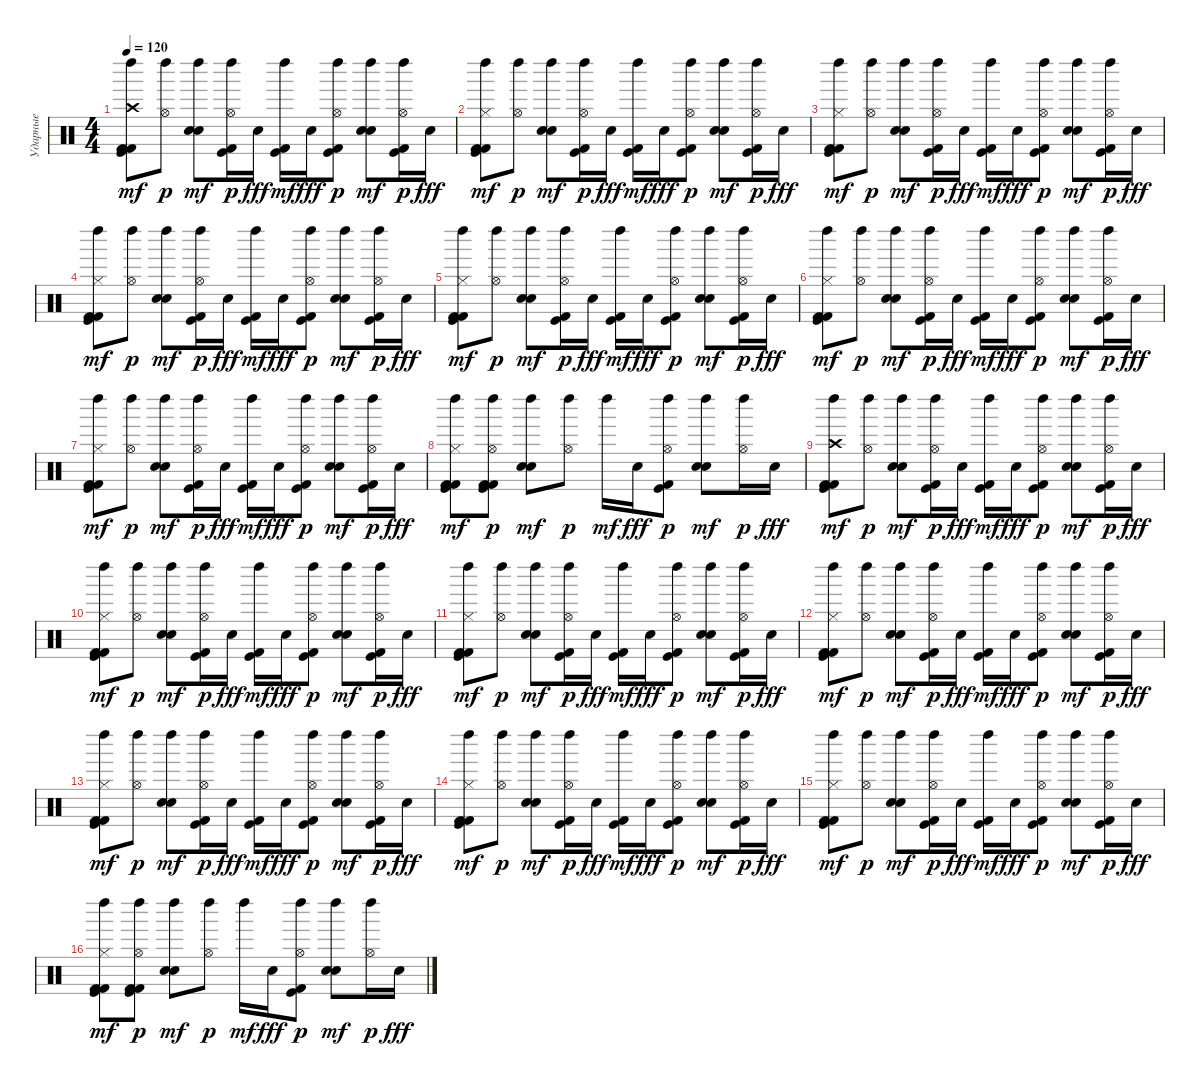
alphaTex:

\track ("Ударные" "Ударные") {instrument percussion}
\staff {score}
\articulation defaults
\ts (4 4)
\tempo 120
\clef neutral
\ks c
("Crash high (hit)" "Kick (hit)" "Kick (hit) 2" "Kick (hit) 2" "Left Maraca (hit)").8{dy mf} ("Hi-Hat (open)" "Left Maraca (hit)").8{dy p} ("Snare (hit) 2" "Electric Snare (hit)" "Left Maraca (hit)").8{dy mf} ("Hi-Hat (open)" "Kick (hit)" "Kick (hit) 2" "Left Maraca (hit)").16{dy p} "Snare (hit) 2".16{dy fff} ("Kick (hit)" "Kick (hit) 2" "Left Maraca (hit)").16{dy mf} "Snare (hit) 2".16{dy fff} ("Hi-Hat (open)" "Kick (hit)" "Kick (hit) 2" "Left Maraca (hit)").8{dy p} ("Snare (hit) 2" "Electric Snare (hit)" "Left Maraca (hit)").8{dy mf} ("Hi-Hat (open)" "Kick (hit)" "Kick (hit) 2" "Left Maraca (hit)").16{dy p} "Snare (hit) 2".16{dy fff} |
("Hi-Hat (closed)" "Kick (hit)" "Kick (hit) 2" "Kick (hit) 2" "Left Maraca (hit)").8{dy mf} ("Hi-Hat (open)" "Left Maraca (hit)").8{dy p} ("Snare (hit) 2" "Electric Snare (hit)" "Left Maraca (hit)").8{dy mf} ("Hi-Hat (open)" "Kick (hit)" "Kick (hit) 2" "Left Maraca (hit)").16{dy p} "Snare (hit) 2".16{dy fff} ("Kick (hit)" "Kick (hit) 2" "Left Maraca (hit)").16{dy mf} "Snare (hit) 2".16{dy fff} ("Hi-Hat (open)" "Kick (hit)" "Kick (hit) 2" "Left Maraca (hit)").8{dy p} ("Snare (hit) 2" "Electric Snare (hit)" "Left Maraca (hit)").8{dy mf} ("Hi-Hat (open)" "Kick (hit)" "Kick (hit) 2" "Left Maraca (hit)").16{dy p} "Snare (hit) 2".16{dy fff} |
("Hi-Hat (closed)" "Kick (hit)" "Kick (hit) 2" "Kick (hit) 2" "Left Maraca (hit)").8{dy mf} ("Hi-Hat (open)" "Left Maraca (hit)").8{dy p} ("Snare (hit) 2" "Electric Snare (hit)" "Left Maraca (hit)").8{dy mf} ("Hi-Hat (open)" "Kick (hit)" "Kick (hit) 2" "Left Maraca (hit)").16{dy p} "Snare (hit) 2".16{dy fff} ("Kick (hit)" "Kick (hit) 2" "Left Maraca (hit)").16{dy mf} "Snare (hit) 2".16{dy fff} ("Hi-Hat (open)" "Kick (hit)" "Kick (hit) 2" "Left Maraca (hit)").8{dy p} ("Snare (hit) 2" "Electric Snare (hit)" "Left Maraca (hit)").8{dy mf} ("Hi-Hat (open)" "Kick (hit)" "Kick (hit) 2" "Left Maraca (hit)").16{dy p} "Snare (hit) 2".16{dy fff} |
("Hi-Hat (closed)" "Kick (hit)" "Kick (hit) 2" "Kick (hit) 2" "Left Maraca (hit)").8{dy mf} ("Hi-Hat (open)" "Left Maraca (hit)").8{dy p} ("Snare (hit) 2" "Electric Snare (hit)" "Left Maraca (hit)").8{dy mf} ("Hi-Hat (open)" "Kick (hit)" "Kick (hit) 2" "Left Maraca (hit)").16{dy p} "Snare (hit) 2".16{dy fff} ("Kick (hit)" "Kick (hit) 2" "Left Maraca (hit)").16{dy mf} "Snare (hit) 2".16{dy fff} ("Hi-Hat (open)" "Kick (hit)" "Kick (hit) 2" "Left Maraca (hit)").8{dy p} ("Snare (hit) 2" "Electric Snare (hit)" "Left Maraca (hit)").8{dy mf} ("Hi-Hat (open)" "Kick (hit)" "Kick (hit) 2" "Left Maraca (hit)").16{dy p} "Snare (hit) 2".16{dy fff} |
("Hi-Hat (closed)" "Kick (hit)" "Kick (hit) 2" "Kick (hit) 2" "Left Maraca (hit)").8{dy mf} ("Hi-Hat (open)" "Left Maraca (hit)").8{dy p} ("Snare (hit) 2" "Electric Snare (hit)" "Left Maraca (hit)").8{dy mf} ("Hi-Hat (open)" "Kick (hit)" "Kick (hit) 2" "Left Maraca (hit)").16{dy p} "Snare (hit) 2".16{dy fff} ("Kick (hit)" "Kick (hit) 2" "Left Maraca (hit)").16{dy mf} "Snare (hit) 2".16{dy fff} ("Hi-Hat (open)" "Kick (hit)" "Kick (hit) 2" "Left Maraca (hit)").8{dy p} ("Snare (hit) 2" "Electric Snare (hit)" "Left Maraca (hit)").8{dy mf} ("Hi-Hat (open)" "Kick (hit)" "Kick (hit) 2" "Left Maraca (hit)").16{dy p} "Snare (hit) 2".16{dy fff} |
("Hi-Hat (closed)" "Kick (hit)" "Kick (hit) 2" "Kick (hit) 2" "Left Maraca (hit)").8{dy mf} ("Hi-Hat (open)" "Left Maraca (hit)").8{dy p} ("Snare (hit) 2" "Electric Snare (hit)" "Left Maraca (hit)").8{dy mf} ("Hi-Hat (open)" "Kick (hit)" "Kick (hit) 2" "Left Maraca (hit)").16{dy p} "Snare (hit) 2".16{dy fff} ("Kick (hit)" "Kick (hit) 2" "Left Maraca (hit)").16{dy mf} "Snare (hit) 2".16{dy fff} ("Hi-Hat (open)" "Kick (hit)" "Kick (hit) 2" "Left Maraca (hit)").8{dy p} ("Snare (hit) 2" "Electric Snare (hit)" "Left Maraca (hit)").8{dy mf} ("Hi-Hat (open)" "Kick (hit)" "Kick (hit) 2" "Left Maraca (hit)").16{dy p} "Snare (hit) 2".16{dy fff} |
("Hi-Hat (closed)" "Kick (hit)" "Kick (hit) 2" "Kick (hit) 2" "Left Maraca (hit)").8{dy mf} ("Hi-Hat (open)" "Left Maraca (hit)").8{dy p} ("Snare (hit) 2" "Electric Snare (hit)" "Left Maraca (hit)").8{dy mf} ("Hi-Hat (open)" "Kick (hit)" "Kick (hit) 2" "Left Maraca (hit)").16{dy p} "Snare (hit) 2".16{dy fff} ("Kick (hit)" "Kick (hit) 2" "Left Maraca (hit)").16{dy mf} "Snare (hit) 2".16{dy fff} ("Hi-Hat (open)" "Kick (hit)" "Kick (hit) 2" "Left Maraca (hit)").8{dy p} ("Snare (hit) 2" "Electric Snare (hit)" "Left Maraca (hit)").8{dy mf} ("Hi-Hat (open)" "Kick (hit)" "Kick (hit) 2" "Left Maraca (hit)").16{dy p} "Snare (hit) 2".16{dy fff} |
("Hi-Hat (closed)" "Kick (hit)" "Kick (hit) 2" "Kick (hit) 2" "Left Maraca (hit)").8{dy mf} ("Hi-Hat (open)" "Kick (hit)" "Kick (hit) 2" "Kick (hit) 2" "Left Maraca (hit)").8{dy p} ("Snare (hit) 2" "Electric Snare (hit)" "Left Maraca (hit)").8{dy mf} ("Hi-Hat (open)" "Left Maraca (hit)").8{dy p} "Left Maraca (hit)".16{dy mf} "Snare (hit) 2".16{dy fff} ("Hi-Hat (open)" "Kick (hit)" "Kick (hit) 2" "Left Maraca (hit)").8{dy p} ("Snare (hit) 2" "Electric Snare (hit)" "Left Maraca (hit)").8{dy mf} ("Hi-Hat (open)" "Left Maraca (hit)").16{dy p} "Snare (hit) 2".16{dy fff} |
("Crash high (hit)" "Kick (hit)" "Kick (hit) 2" "Kick (hit) 2" "Left Maraca (hit)").8{dy mf} ("Hi-Hat (open)" "Left Maraca (hit)").8{dy p} ("Snare (hit) 2" "Electric Snare (hit)" "Left Maraca (hit)").8{dy mf} ("Hi-Hat (open)" "Kick (hit)" "Kick (hit) 2" "Left Maraca (hit)").16{dy p} "Snare (hit) 2".16{dy fff} ("Kick (hit)" "Kick (hit) 2" "Left Maraca (hit)").16{dy mf} "Snare (hit) 2".16{dy fff} ("Hi-Hat (open)" "Kick (hit)" "Kick (hit) 2" "Left Maraca (hit)").8{dy p} ("Snare (hit) 2" "Electric Snare (hit)" "Left Maraca (hit)").8{dy mf} ("Hi-Hat (open)" "Kick (hit)" "Kick (hit) 2" "Left Maraca (hit)").16{dy p} "Snare (hit) 2".16{dy fff} |
("Hi-Hat (closed)" "Kick (hit)" "Kick (hit) 2" "Kick (hit) 2" "Left Maraca (hit)").8{dy mf} ("Hi-Hat (open)" "Left Maraca (hit)").8{dy p} ("Snare (hit) 2" "Electric Snare (hit)" "Left Maraca (hit)").8{dy mf} ("Hi-Hat (open)" "Kick (hit)" "Kick (hit) 2" "Left Maraca (hit)").16{dy p} "Snare (hit) 2".16{dy fff} ("Kick (hit)" "Kick (hit) 2" "Left Maraca (hit)").16{dy mf} "Snare (hit) 2".16{dy fff} ("Hi-Hat (open)" "Kick (hit)" "Kick (hit) 2" "Left Maraca (hit)").8{dy p} ("Snare (hit) 2" "Electric Snare (hit)" "Left Maraca (hit)").8{dy mf} ("Hi-Hat (open)" "Kick (hit)" "Kick (hit) 2" "Left Maraca (hit)").16{dy p} "Snare (hit) 2".16{dy fff} |
("Hi-Hat (closed)" "Kick (hit)" "Kick (hit) 2" "Kick (hit) 2" "Left Maraca (hit)").8{dy mf} ("Hi-Hat (open)" "Left Maraca (hit)").8{dy p} ("Snare (hit) 2" "Electric Snare (hit)" "Left Maraca (hit)").8{dy mf} ("Hi-Hat (open)" "Kick (hit)" "Kick (hit) 2" "Left Maraca (hit)").16{dy p} "Snare (hit) 2".16{dy fff} ("Kick (hit)" "Kick (hit) 2" "Left Maraca (hit)").16{dy mf} "Snare (hit) 2".16{dy fff} ("Hi-Hat (open)" "Kick (hit)" "Kick (hit) 2" "Left Maraca (hit)").8{dy p} ("Snare (hit) 2" "Electric Snare (hit)" "Left Maraca (hit)").8{dy mf} ("Hi-Hat (open)" "Kick (hit)" "Kick (hit) 2" "Left Maraca (hit)").16{dy p} "Snare (hit) 2".16{dy fff} |
("Hi-Hat (closed)" "Kick (hit)" "Kick (hit) 2" "Kick (hit) 2" "Left Maraca (hit)").8{dy mf} ("Hi-Hat (open)" "Left Maraca (hit)").8{dy p} ("Snare (hit) 2" "Electric Snare (hit)" "Left Maraca (hit)").8{dy mf} ("Hi-Hat (open)" "Kick (hit)" "Kick (hit) 2" "Left Maraca (hit)").16{dy p} "Snare (hit) 2".16{dy fff} ("Kick (hit)" "Kick (hit) 2" "Left Maraca (hit)").16{dy mf} "Snare (hit) 2".16{dy fff} ("Hi-Hat (open)" "Kick (hit)" "Kick (hit) 2" "Left Maraca (hit)").8{dy p} ("Snare (hit) 2" "Electric Snare (hit)" "Left Maraca (hit)").8{dy mf} ("Hi-Hat (open)" "Kick (hit)" "Kick (hit) 2" "Left Maraca (hit)").16{dy p} "Snare (hit) 2".16{dy fff} |
("Hi-Hat (closed)" "Kick (hit)" "Kick (hit) 2" "Kick (hit) 2" "Left Maraca (hit)").8{dy mf} ("Hi-Hat (open)" "Left Maraca (hit)").8{dy p} ("Snare (hit) 2" "Electric Snare (hit)" "Left Maraca (hit)").8{dy mf} ("Hi-Hat (open)" "Kick (hit)" "Kick (hit) 2" "Left Maraca (hit)").16{dy p} "Snare (hit) 2".16{dy fff} ("Kick (hit)" "Kick (hit) 2" "Left Maraca (hit)").16{dy mf} "Snare (hit) 2".16{dy fff} ("Hi-Hat (open)" "Kick (hit)" "Kick (hit) 2" "Left Maraca (hit)").8{dy p} ("Snare (hit) 2" "Electric Snare (hit)" "Left Maraca (hit)").8{dy mf} ("Hi-Hat (open)" "Kick (hit)" "Kick (hit) 2" "Left Maraca (hit)").16{dy p} "Snare (hit) 2".16{dy fff} |
("Hi-Hat (closed)" "Kick (hit)" "Kick (hit) 2" "Kick (hit) 2" "Left Maraca (hit)").8{dy mf} ("Hi-Hat (open)" "Left Maraca (hit)").8{dy p} ("Snare (hit) 2" "Electric Snare (hit)" "Left Maraca (hit)").8{dy mf} ("Hi-Hat (open)" "Kick (hit)" "Kick (hit) 2" "Left Maraca (hit)").16{dy p} "Snare (hit) 2".16{dy fff} ("Kick (hit)" "Kick (hit) 2" "Left Maraca (hit)").16{dy mf} "Snare (hit) 2".16{dy fff} ("Hi-Hat (open)" "Kick (hit)" "Kick (hit) 2" "Left Maraca (hit)").8{dy p} ("Snare (hit) 2" "Electric Snare (hit)" "Left Maraca (hit)").8{dy mf} ("Hi-Hat (open)" "Kick (hit)" "Kick (hit) 2" "Left Maraca (hit)").16{dy p} "Snare (hit) 2".16{dy fff} |
("Hi-Hat (closed)" "Kick (hit)" "Kick (hit) 2" "Kick (hit) 2" "Left Maraca (hit)").8{dy mf} ("Hi-Hat (open)" "Left Maraca (hit)").8{dy p} ("Snare (hit) 2" "Electric Snare (hit)" "Left Maraca (hit)").8{dy mf} ("Hi-Hat (open)" "Kick (hit)" "Kick (hit) 2" "Left Maraca (hit)").16{dy p} "Snare (hit) 2".16{dy fff} ("Kick (hit)" "Kick (hit) 2" "Left Maraca (hit)").16{dy mf} "Snare (hit) 2".16{dy fff} ("Hi-Hat (open)" "Kick (hit)" "Kick (hit) 2" "Left Maraca (hit)").8{dy p} ("Snare (hit) 2" "Electric Snare (hit)" "Left Maraca (hit)").8{dy mf} ("Hi-Hat (open)" "Kick (hit)" "Kick (hit) 2" "Left Maraca (hit)").16{dy p} "Snare (hit) 2".16{dy fff} |
("Hi-Hat (closed)" "Kick (hit)" "Kick (hit) 2" "Kick (hit) 2" "Left Maraca (hit)").8{dy mf} ("Hi-Hat (open)" "Kick (hit)" "Kick (hit) 2" "Kick (hit) 2" "Left Maraca (hit)").8{dy p} ("Snare (hit) 2" "Electric Snare (hit)" "Left Maraca (hit)").8{dy mf} ("Hi-Hat (open)" "Left Maraca (hit)").8{dy p} "Left Maraca (hit)".16{dy mf} "Snare (hit) 2".16{dy fff} ("Hi-Hat (open)" "Kick (hit)" "Kick (hit) 2" "Left Maraca (hit)").8{dy p} ("Snare (hit) 2" "Electric Snare (hit)" "Left Maraca (hit)").8{dy mf} ("Hi-Hat (open)" "Left Maraca (hit)").16{dy p} "Snare (hit) 2".16{dy fff}
